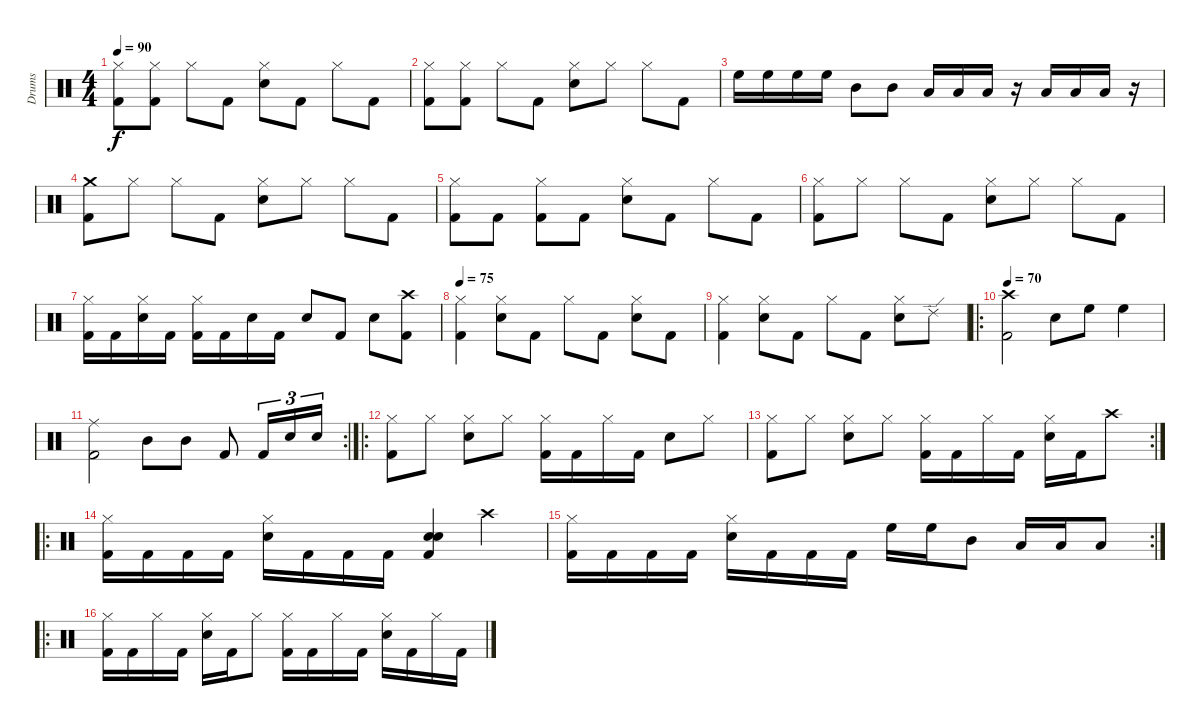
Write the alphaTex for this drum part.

\track ("Drums" "Drums") {instrument percussion}
\staff {score}
\articulation defaults
\ts (4 4)
\tempo 90
\clef neutral
\ks c
("Kick (hit) 2" "Hi-Hat (closed)").8{dy f} ("Kick (hit) 2" "Hi-Hat (closed)").8 "Hi-Hat (closed)".8 "Kick (hit) 2".8 ("Snare (hit) 2" "Hi-Hat (closed)").8 "Kick (hit) 2".8 "Hi-Hat (closed)".8 "Kick (hit) 2".8 |
("Hi-Hat (closed)" "Kick (hit) 2").8 ("Kick (hit) 2" "Hi-Hat (closed)").8 "Hi-Hat (closed)".8 "Kick (hit) 2".8 ("Hi-Hat (closed)" "Snare (hit) 2").8 "Hi-Hat (closed)".8 "Hi-Hat (closed)".8 "Kick (hit) 2".8 |
"High Floor Tom (hit)".16 "High Floor Tom (hit)".16 "High Floor Tom (hit)".16 "High Floor Tom (hit)".16 "Mid Tom (hit)".8 "Mid Tom (hit)".8 "Low Tom (hit)".16 "Low Tom (hit)".16 "Low Tom (hit)".16 r.16 "Low Floor Tom (hit)".16 "Low Floor Tom (hit)".16 "Low Floor Tom (hit)".16 r.16 |
("Crash medium (hit)" "Kick (hit) 2").8 "Hi-Hat (closed)".8 "Hi-Hat (closed)".8 "Kick (hit) 2".8 ("Hi-Hat (closed)" "Snare (hit) 2").8 "Hi-Hat (closed)".8 "Hi-Hat (closed)".8 "Kick (hit) 2".8 |
("Kick (hit) 2" "Hi-Hat (closed)").8 "Kick (hit) 2".8 ("Kick (hit) 2" "Hi-Hat (closed)").8 "Kick (hit) 2".8 ("Hi-Hat (closed)" "Snare (hit) 2").8 "Kick (hit) 2".8 "Hi-Hat (closed)".8 "Kick (hit) 2".8 |
("Hi-Hat (closed)" "Kick (hit) 2").8 "Hi-Hat (closed)".8 "Hi-Hat (closed)".8 "Kick (hit) 2".8 ("Hi-Hat (closed)" "Snare (hit) 2").8 "Hi-Hat (closed)".8 "Hi-Hat (closed)".8 "Kick (hit) 2".8 |
("Hi-Hat (closed)" "Kick (hit) 2").16 "Kick (hit) 2".16 ("Hi-Hat (closed)" "Snare (hit) 2").16 "Kick (hit) 2".16 ("Hi-Hat (closed)" "Kick (hit) 2").16 "Kick (hit) 2".16 "Snare (hit) 2".16 "Kick (hit) 2".16 "Snare (hit) 2".8 "Kick (hit) 2".8 "Snare (hit) 2".8 ("Kick (hit) 2" "Crash high (hit)").8 |
\tempo 75
("Hi-Hat (closed)" "Kick (hit) 2").4 ("Hi-Hat (closed)" "Snare (hit) 2").8 "Kick (hit) 2".8 "Hi-Hat (closed)".8 "Kick (hit) 2".8 ("Snare (hit) 2" "Hi-Hat (closed)").8 "Kick (hit) 2".8 |
("Hi-Hat (closed)" "Kick (hit) 2").4 ("Hi-Hat (closed)" "Snare (hit) 2").8 "Kick (hit) 2".8 "Hi-Hat (closed)".8 "Kick (hit) 2".8 ("Snare (hit) 2" "Hi-Hat (closed)").8 "Ride (edge) 2".8 |
\ro
\tempo 70
("Kick (hit) 2" "Crash high (hit)").2 "Snare (hit) 2".8 "High Floor Tom (hit)".8 "High Floor Tom (hit)".4 |
\rc 2
("Ride (middle)" "Kick (hit) 2").2 "Mid Tom (hit)".8 "Mid Tom (hit)".8 "Kick (hit) 2".8 "Kick (hit) 2".16{tu (3 2)} "Snare (hit) 2".16{tu (3 2)} "Snare (hit) 2".16{tu (3 2)} |
\ro
("Hi-Hat (closed)" "Kick (hit) 2").8 "Hi-Hat (closed)".8 ("Hi-Hat (closed)" "Snare (hit) 2").8 "Hi-Hat (closed)".8 ("Hi-Hat (closed)" "Kick (hit) 2").16 "Kick (hit) 2".16 "Hi-Hat (closed)".16 "Kick (hit) 2".16 "Snare (hit) 2".8 "Hi-Hat (closed)".8 |
\rc 2
("Hi-Hat (closed)" "Kick (hit) 2").8 "Hi-Hat (closed)".8 ("Hi-Hat (closed)" "Snare (hit) 2").8 "Hi-Hat (closed)".8 ("Hi-Hat (closed)" "Kick (hit) 2").16 "Kick (hit) 2".16 "Hi-Hat (closed)".16 "Kick (hit) 2".16 ("Snare (hit) 2" "Hi-Hat (closed)").16 "Kick (hit) 2".16 "Crash high (hit)".8 |
\ro
("Kick (hit) 2" "Hi-Hat (closed)").16 "Kick (hit) 2".16 "Kick (hit) 2".16 "Kick (hit) 2".16 ("Hi-Hat (closed)" "Snare (hit) 2").16 "Kick (hit) 2".16 "Kick (hit) 2".16 "Kick (hit) 2".16 ("Snare (hit) 2" "Kick (hit) 2" "Snare (hit) 2").4 "Crash high (hit)".4 |
\rc 2
("Kick (hit) 2" "Hi-Hat (closed)").16 "Kick (hit) 2".16 "Kick (hit) 2".16 "Kick (hit) 2".16 ("Hi-Hat (closed)" "Snare (hit) 2").16 "Kick (hit) 2".16 "Kick (hit) 2".16 "Kick (hit) 2".16 "High Floor Tom (hit)".16 "High Floor Tom (hit)".16 "Mid Tom (hit)".8 "Low Tom (hit)".16 "Low Tom (hit)".16 "Low Floor Tom (hit)".8 |
\ro
("Hi-Hat (closed)" "Kick (hit) 2").16 "Kick (hit) 2".16 "Hi-Hat (closed)".16 "Kick (hit) 2".16 ("Snare (hit) 2" "Hi-Hat (closed)").16 "Kick (hit) 2".16 "Hi-Hat (closed)".8 ("Hi-Hat (closed)" "Kick (hit) 2").16 "Kick (hit) 2".16 "Hi-Hat (closed)".16 "Kick (hit) 2".16 ("Hi-Hat (closed)" "Snare (hit) 2").16 "Kick (hit) 2".16 "Hi-Hat (closed)".16 "Kick (hit) 2".16
